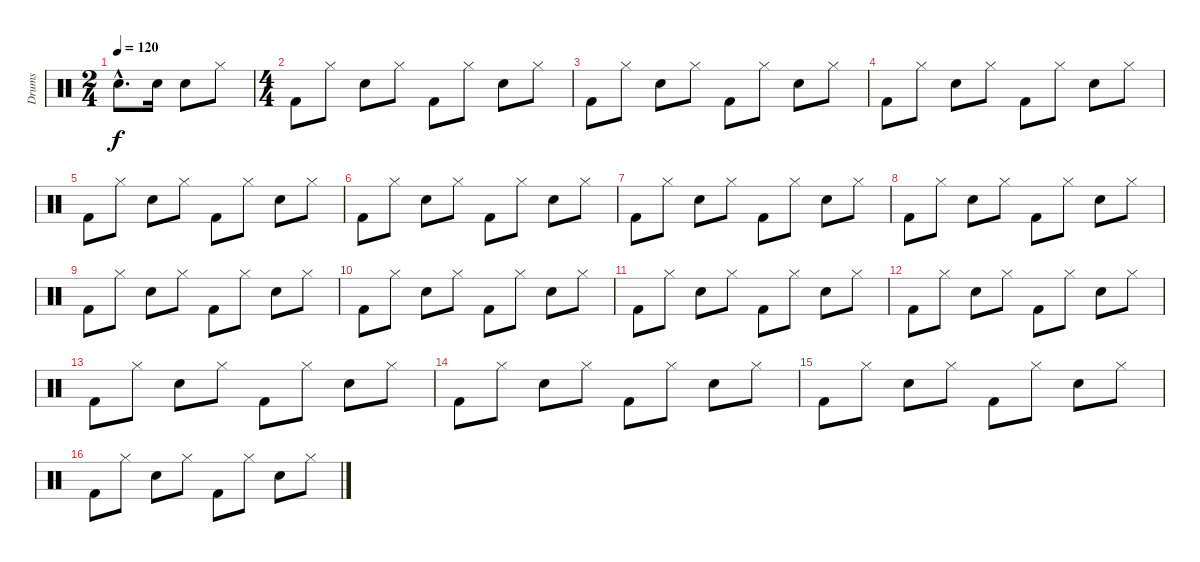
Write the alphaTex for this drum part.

\track ("Drums" "Drums") {instrument percussion}
\staff {score}
\articulation defaults
\ts (2 4)
\tempo 120
\clef neutral
\ks c "Snare (hit) 2"{hac}.8{d dy f} "Snare (hit) 2".16 "Snare (hit) 2".8 "Hi-Hat (closed)".8
|
\ts (4 4)
"Kick (hit) 2".8 "Hi-Hat (closed)".8 "Snare (hit) 2".8 "Hi-Hat (closed)".8 "Kick (hit) 2".8 "Hi-Hat (closed)".8 "Snare (hit) 2".8 "Hi-Hat (closed)".8 |
"Kick (hit) 2".8 "Hi-Hat (closed)".8 "Snare (hit) 2".8 "Hi-Hat (closed)".8 "Kick (hit) 2".8 "Hi-Hat (closed)".8 "Snare (hit) 2".8 "Hi-Hat (closed)".8 |
"Kick (hit) 2".8 "Hi-Hat (closed)".8 "Snare (hit) 2".8 "Hi-Hat (closed)".8 "Kick (hit) 2".8 "Hi-Hat (closed)".8 "Snare (hit) 2".8 "Hi-Hat (closed)".8 |
"Kick (hit) 2".8 "Hi-Hat (closed)".8 "Snare (hit) 2".8 "Hi-Hat (closed)".8 "Kick (hit) 2".8 "Hi-Hat (closed)".8 "Snare (hit) 2".8 "Hi-Hat (closed)".8 |
"Kick (hit) 2".8 "Hi-Hat (closed)".8 "Snare (hit) 2".8 "Hi-Hat (closed)".8 "Kick (hit) 2".8 "Hi-Hat (closed)".8 "Snare (hit) 2".8 "Hi-Hat (closed)".8 |
"Kick (hit) 2".8 "Hi-Hat (closed)".8 "Snare (hit) 2".8 "Hi-Hat (closed)".8 "Kick (hit) 2".8 "Hi-Hat (closed)".8 "Snare (hit) 2".8 "Hi-Hat (closed)".8 |
"Kick (hit) 2".8 "Hi-Hat (closed)".8 "Snare (hit) 2".8 "Hi-Hat (closed)".8 "Kick (hit) 2".8 "Hi-Hat (closed)".8 "Snare (hit) 2".8 "Hi-Hat (closed)".8 |
"Kick (hit) 2".8 "Hi-Hat (closed)".8 "Snare (hit) 2".8 "Hi-Hat (closed)".8 "Kick (hit) 2".8 "Hi-Hat (closed)".8 "Snare (hit) 2".8 "Hi-Hat (closed)".8 |
"Kick (hit) 2".8 "Hi-Hat (closed)".8 "Snare (hit) 2".8 "Hi-Hat (closed)".8 "Kick (hit) 2".8 "Hi-Hat (closed)".8 "Snare (hit) 2".8 "Hi-Hat (closed)".8 |
"Kick (hit) 2".8 "Hi-Hat (closed)".8 "Snare (hit) 2".8 "Hi-Hat (closed)".8 "Kick (hit) 2".8 "Hi-Hat (closed)".8 "Snare (hit) 2".8 "Hi-Hat (closed)".8 |
"Kick (hit) 2".8 "Hi-Hat (closed)".8 "Snare (hit) 2".8 "Hi-Hat (closed)".8 "Kick (hit) 2".8 "Hi-Hat (closed)".8 "Snare (hit) 2".8 "Hi-Hat (closed)".8 |
"Kick (hit) 2".8 "Hi-Hat (closed)".8 "Snare (hit) 2".8 "Hi-Hat (closed)".8 "Kick (hit) 2".8 "Hi-Hat (closed)".8 "Snare (hit) 2".8 "Hi-Hat (closed)".8 |
"Kick (hit) 2".8 "Hi-Hat (closed)".8 "Snare (hit) 2".8 "Hi-Hat (closed)".8 "Kick (hit) 2".8 "Hi-Hat (closed)".8 "Snare (hit) 2".8 "Hi-Hat (closed)".8 |
"Kick (hit) 2".8 "Hi-Hat (closed)".8 "Snare (hit) 2".8 "Hi-Hat (closed)".8 "Kick (hit) 2".8 "Hi-Hat (closed)".8 "Snare (hit) 2".8 "Hi-Hat (closed)".8 |
"Kick (hit) 2".8 "Hi-Hat (closed)".8 "Snare (hit) 2".8 "Hi-Hat (closed)".8 "Kick (hit) 2".8 "Hi-Hat (closed)".8 "Snare (hit) 2".8 "Hi-Hat (closed)".8
